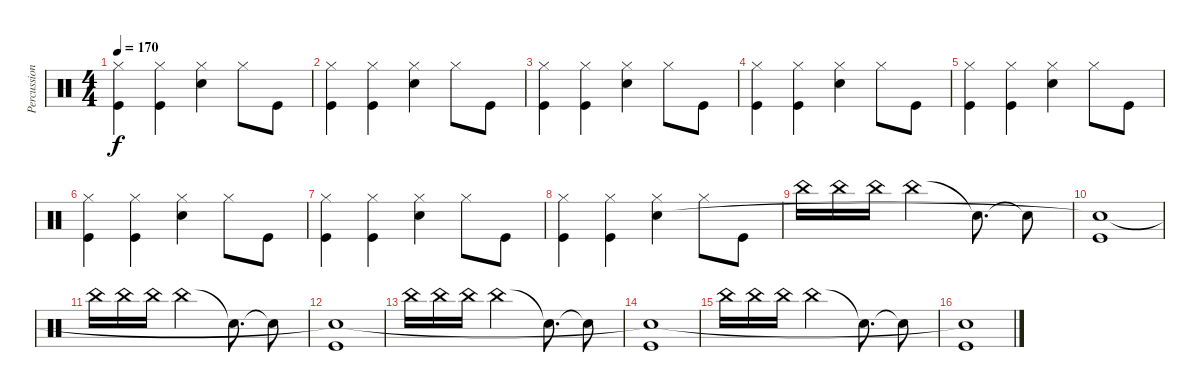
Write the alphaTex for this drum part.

\track ("Percussion" "Percussion") {instrument percussion}
\staff {score}
\articulation defaults
\ts (4 4)
\tempo 170
\clef neutral
\ks c
("Hi-Hat (closed)" "Kick (hit)").4{dy f} ("Hi-Hat (closed)" "Kick (hit)").4 ("Hi-Hat (closed)" "Snare (hit) 2").4 "Hi-Hat (closed)".8 "Kick (hit)".8 |
("Hi-Hat (closed)" "Kick (hit)").4 ("Hi-Hat (closed)" "Kick (hit)").4 ("Hi-Hat (closed)" "Snare (hit) 2").4 "Hi-Hat (closed)".8 "Kick (hit)".8 |
("Hi-Hat (closed)" "Kick (hit)").4 ("Hi-Hat (closed)" "Kick (hit)").4 ("Hi-Hat (closed)" "Snare (hit) 2").4 "Hi-Hat (closed)".8 "Kick (hit)".8 |
("Hi-Hat (closed)" "Kick (hit)").4 ("Hi-Hat (closed)" "Kick (hit)").4 ("Hi-Hat (closed)" "Snare (hit) 2").4 "Hi-Hat (closed)".8 "Kick (hit)".8 |
("Hi-Hat (closed)" "Kick (hit)").4 ("Hi-Hat (closed)" "Kick (hit)").4 ("Hi-Hat (closed)" "Snare (hit) 2").4 "Hi-Hat (closed)".8 "Kick (hit)".8 |
("Hi-Hat (closed)" "Kick (hit)").4 ("Hi-Hat (closed)" "Kick (hit)").4 ("Hi-Hat (closed)" "Snare (hit) 2").4 "Hi-Hat (closed)".8 "Kick (hit)".8 |
("Hi-Hat (closed)" "Kick (hit)").4 ("Hi-Hat (closed)" "Kick (hit)").4 ("Hi-Hat (closed)" "Snare (hit) 2").4 "Hi-Hat (closed)".8 "Kick (hit)".8 |
("Hi-Hat (closed)" "Kick (hit)").4 ("Hi-Hat (closed)" "Kick (hit)").4 ("Hi-Hat (closed)" "Snare (hit) 2").4 "Hi-Hat (closed)".8 "Kick (hit)".8 |
"China (hit)".16 "China (hit)".16 "China (hit)".16 "China (hit)".2 "Snare (hit)"{t}.8{d} "Snare (hit)"{t}.8 |
("Kick (hit)" "Snare (hit)"{t}).1 |
"China (hit)".16 "China (hit)".16 "China (hit)".16 "China (hit)".2 "Snare (hit)"{t}.8{d} "Snare (hit)"{t}.8 |
("Kick (hit)" "Snare (hit)"{t}).1 |
"China (hit)".16 "China (hit)".16 "China (hit)".16 "China (hit)".2 "Snare (hit)"{t}.8{d} "Snare (hit)"{t}.8 |
("Kick (hit)" "Snare (hit)"{t}).1 |
"China (hit)".16 "China (hit)".16 "China (hit)".16 "China (hit)".2 "Snare (hit)"{t}.8{d} "Snare (hit)"{t}.8 |
("Kick (hit)" "Snare (hit)"{t}).1
